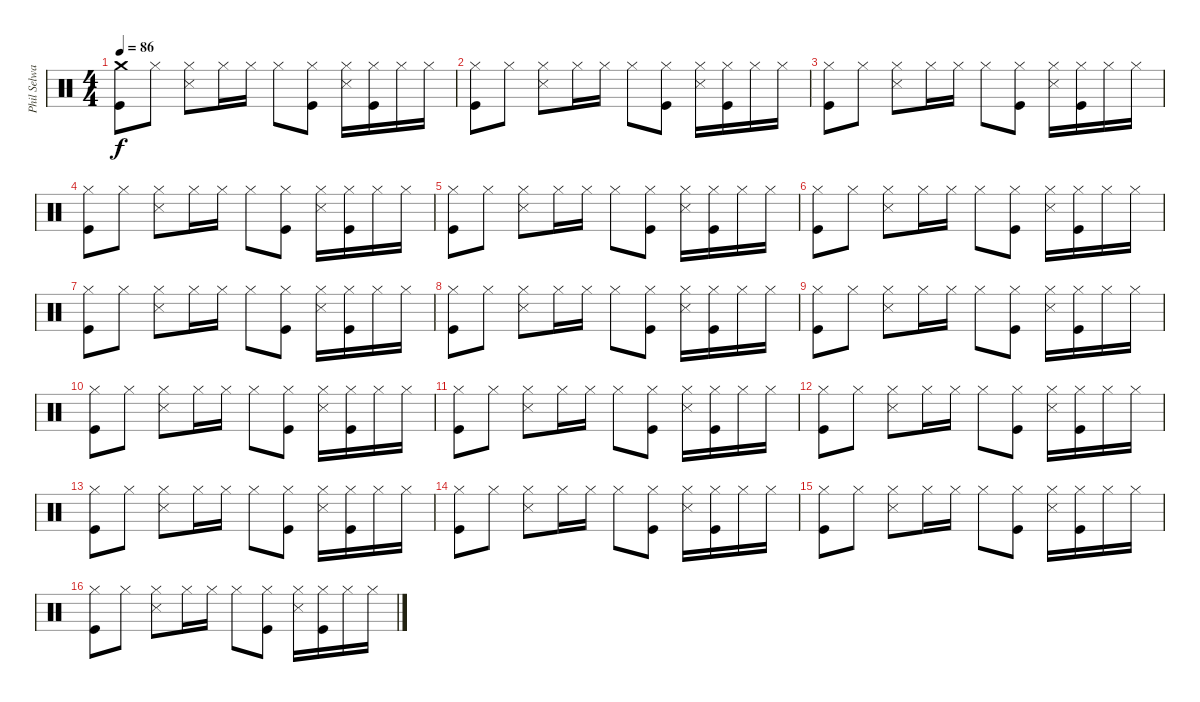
\track ("Phil Selway" "Phil Selwa") {instrument percussion}
\staff {score}
\articulation defaults
\ts (4 4)
\tempo 86
\clef neutral
\ks c
("Kick (hit)" "Crash medium (hit)").8{dy f} "Hi-Hat (closed)".8 ("Hi-Hat (closed)" "Snare (side stick) 3").8 "Hi-Hat (closed)".16 "Hi-Hat (closed)".16 "Hi-Hat (closed)".8 ("Kick (hit)" "Hi-Hat (closed)").8 ("Hi-Hat (closed)" "Snare (side stick) 3").16 ("Kick (hit)" "Hi-Hat (closed)").16 "Hi-Hat (closed)".16 "Hi-Hat (closed)".16 |
("Kick (hit)" "Hi-Hat (closed)").8 "Hi-Hat (closed)".8 ("Hi-Hat (closed)" "Snare (side stick) 3").8 "Hi-Hat (closed)".16 "Hi-Hat (closed)".16 "Hi-Hat (closed)".8 ("Kick (hit)" "Hi-Hat (closed)").8 ("Hi-Hat (closed)" "Snare (side stick) 3").16 ("Kick (hit)" "Hi-Hat (closed)").16 "Hi-Hat (closed)".16 "Hi-Hat (closed)".16 |
("Kick (hit)" "Hi-Hat (closed)").8 "Hi-Hat (closed)".8 ("Hi-Hat (closed)" "Snare (side stick) 3").8 "Hi-Hat (closed)".16 "Hi-Hat (closed)".16 "Hi-Hat (closed)".8 ("Kick (hit)" "Hi-Hat (closed)").8 ("Hi-Hat (closed)" "Snare (side stick) 3").16 ("Kick (hit)" "Hi-Hat (closed)").16 "Hi-Hat (closed)".16 "Hi-Hat (closed)".16 |
("Kick (hit)" "Hi-Hat (closed)").8 "Hi-Hat (closed)".8 ("Hi-Hat (closed)" "Snare (side stick) 3").8 "Hi-Hat (closed)".16 "Hi-Hat (closed)".16 "Hi-Hat (closed)".8 ("Kick (hit)" "Hi-Hat (closed)").8 ("Hi-Hat (closed)" "Snare (side stick) 3").16 ("Kick (hit)" "Hi-Hat (closed)").16 "Hi-Hat (closed)".16 "Hi-Hat (closed)".16 |
("Kick (hit)" "Hi-Hat (closed)").8 "Hi-Hat (closed)".8 ("Hi-Hat (closed)" "Snare (side stick) 3").8 "Hi-Hat (closed)".16 "Hi-Hat (closed)".16 "Hi-Hat (closed)".8 ("Kick (hit)" "Hi-Hat (closed)").8 ("Hi-Hat (closed)" "Snare (side stick) 3").16 ("Kick (hit)" "Hi-Hat (closed)").16 "Hi-Hat (closed)".16 "Hi-Hat (closed)".16 |
("Kick (hit)" "Hi-Hat (closed)").8 "Hi-Hat (closed)".8 ("Hi-Hat (closed)" "Snare (side stick) 3").8 "Hi-Hat (closed)".16 "Hi-Hat (closed)".16 "Hi-Hat (closed)".8 ("Kick (hit)" "Hi-Hat (closed)").8 ("Hi-Hat (closed)" "Snare (side stick) 3").16 ("Kick (hit)" "Hi-Hat (closed)").16 "Hi-Hat (closed)".16 "Hi-Hat (closed)".16 |
("Kick (hit)" "Hi-Hat (closed)").8 "Hi-Hat (closed)".8 ("Hi-Hat (closed)" "Snare (side stick) 3").8 "Hi-Hat (closed)".16 "Hi-Hat (closed)".16 "Hi-Hat (closed)".8 ("Kick (hit)" "Hi-Hat (closed)").8 ("Hi-Hat (closed)" "Snare (side stick) 3").16 ("Kick (hit)" "Hi-Hat (closed)").16 "Hi-Hat (closed)".16 "Hi-Hat (closed)".16 |
("Kick (hit)" "Hi-Hat (closed)").8 "Hi-Hat (closed)".8 ("Hi-Hat (closed)" "Snare (side stick) 3").8 "Hi-Hat (closed)".16 "Hi-Hat (closed)".16 "Hi-Hat (closed)".8 ("Kick (hit)" "Hi-Hat (closed)").8 ("Hi-Hat (closed)" "Snare (side stick) 3").16 ("Kick (hit)" "Hi-Hat (closed)").16 "Hi-Hat (closed)".16 "Hi-Hat (closed)".16 |
("Kick (hit)" "Hi-Hat (closed)").8 "Hi-Hat (closed)".8 ("Hi-Hat (closed)" "Snare (side stick) 3").8 "Hi-Hat (closed)".16 "Hi-Hat (closed)".16 "Hi-Hat (closed)".8 ("Kick (hit)" "Hi-Hat (closed)").8 ("Hi-Hat (closed)" "Snare (side stick) 3").16 ("Kick (hit)" "Hi-Hat (closed)").16 "Hi-Hat (closed)".16 "Hi-Hat (closed)".16 |
("Kick (hit)" "Hi-Hat (closed)").8 "Hi-Hat (closed)".8 ("Hi-Hat (closed)" "Snare (side stick) 3").8 "Hi-Hat (closed)".16 "Hi-Hat (closed)".16 "Hi-Hat (closed)".8 ("Kick (hit)" "Hi-Hat (closed)").8 ("Hi-Hat (closed)" "Snare (side stick) 3").16 ("Kick (hit)" "Hi-Hat (closed)").16 "Hi-Hat (closed)".16 "Hi-Hat (closed)".16 |
("Kick (hit)" "Hi-Hat (closed)").8 "Hi-Hat (closed)".8 ("Hi-Hat (closed)" "Snare (side stick) 3").8 "Hi-Hat (closed)".16 "Hi-Hat (closed)".16 "Hi-Hat (closed)".8 ("Kick (hit)" "Hi-Hat (closed)").8 ("Hi-Hat (closed)" "Snare (side stick) 3").16 ("Kick (hit)" "Hi-Hat (closed)").16 "Hi-Hat (closed)".16 "Hi-Hat (closed)".16 |
("Kick (hit)" "Hi-Hat (closed)").8 "Hi-Hat (closed)".8 ("Hi-Hat (closed)" "Snare (side stick) 3").8 "Hi-Hat (closed)".16 "Hi-Hat (closed)".16 "Hi-Hat (closed)".8 ("Kick (hit)" "Hi-Hat (closed)").8 ("Hi-Hat (closed)" "Snare (side stick) 3").16 ("Kick (hit)" "Hi-Hat (closed)").16 "Hi-Hat (closed)".16 "Hi-Hat (closed)".16 |
("Kick (hit)" "Hi-Hat (closed)").8 "Hi-Hat (closed)".8 ("Hi-Hat (closed)" "Snare (side stick) 3").8 "Hi-Hat (closed)".16 "Hi-Hat (closed)".16 "Hi-Hat (closed)".8 ("Kick (hit)" "Hi-Hat (closed)").8 ("Hi-Hat (closed)" "Snare (side stick) 3").16 ("Kick (hit)" "Hi-Hat (closed)").16 "Hi-Hat (closed)".16 "Hi-Hat (closed)".16 |
("Kick (hit)" "Hi-Hat (closed)").8 "Hi-Hat (closed)".8 ("Hi-Hat (closed)" "Snare (side stick) 3").8 "Hi-Hat (closed)".16 "Hi-Hat (closed)".16 "Hi-Hat (closed)".8 ("Kick (hit)" "Hi-Hat (closed)").8 ("Hi-Hat (closed)" "Snare (side stick) 3").16 ("Kick (hit)" "Hi-Hat (closed)").16 "Hi-Hat (closed)".16 "Hi-Hat (closed)".16 |
("Kick (hit)" "Hi-Hat (closed)").8 "Hi-Hat (closed)".8 ("Hi-Hat (closed)" "Snare (side stick) 3").8 "Hi-Hat (closed)".16 "Hi-Hat (closed)".16 "Hi-Hat (closed)".8 ("Kick (hit)" "Hi-Hat (closed)").8 ("Hi-Hat (closed)" "Snare (side stick) 3").16 ("Kick (hit)" "Hi-Hat (closed)").16 "Hi-Hat (closed)".16 "Hi-Hat (closed)".16 |
("Kick (hit)" "Hi-Hat (closed)").8 "Hi-Hat (closed)".8 ("Hi-Hat (closed)" "Snare (side stick) 3").8 "Hi-Hat (closed)".16 "Hi-Hat (closed)".16 "Hi-Hat (closed)".8 ("Kick (hit)" "Hi-Hat (closed)").8 ("Hi-Hat (closed)" "Snare (side stick) 3").16 ("Kick (hit)" "Hi-Hat (closed)").16 "Hi-Hat (closed)".16 "Hi-Hat (closed)".16
